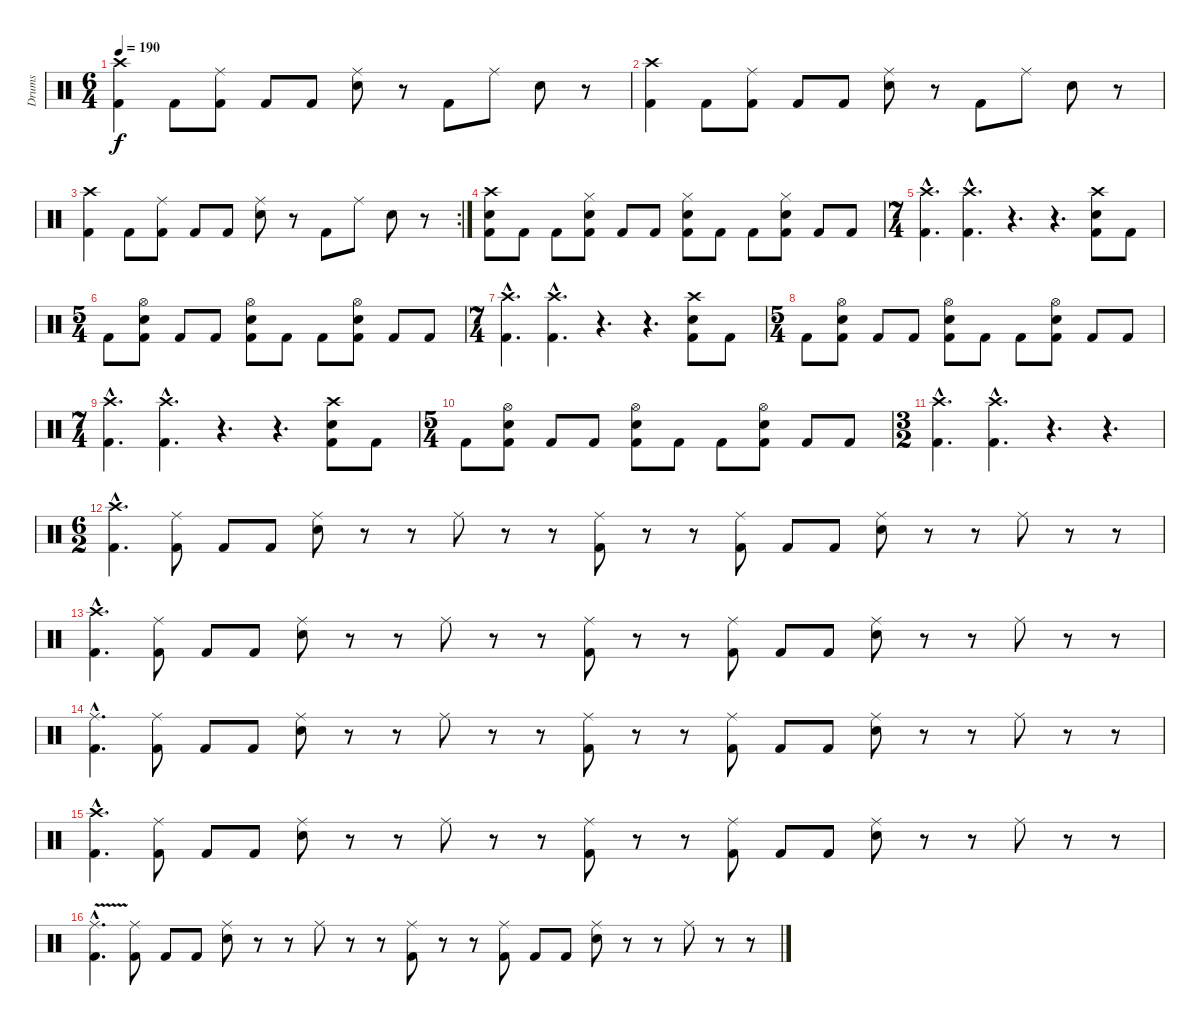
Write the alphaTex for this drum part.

\track ("Drums" "Drums") {instrument percussion}
\staff {score}
\articulation defaults
\ts (6 4)
\tempo 190
\clef neutral
\ks c
("Crash high (hit)" "Kick (hit) 2").4{dy f} "Kick (hit) 2".8 ("Ride (middle)" "Kick (hit) 2").8 "Kick (hit) 2".8 "Kick (hit) 2".8 ("Ride (middle)" "Snare (hit) 2").8 r.8 "Kick (hit) 2".8 "Ride (middle)".8 "Snare (hit) 2".8 r.8 |
("Crash high (hit)" "Kick (hit) 2").4 "Kick (hit) 2".8 ("Ride (middle)" "Kick (hit) 2").8 "Kick (hit) 2".8 "Kick (hit) 2".8 ("Ride (middle)" "Snare (hit) 2").8 r.8 "Kick (hit) 2".8 "Ride (middle)".8 "Snare (hit) 2".8 r.8 |
\rc 2
("Crash high (hit)" "Kick (hit) 2").4 "Kick (hit) 2".8 ("Ride (middle)" "Kick (hit) 2").8 "Kick (hit) 2".8 "Kick (hit) 2".8 ("Ride (middle)" "Snare (hit) 2").8 r.8 "Kick (hit) 2".8 "Ride (middle)".8 "Snare (hit) 2".8 r.8 |
("Crash high (hit)" "Snare (hit) 2" "Kick (hit) 2").8 "Kick (hit) 2".8 "Kick (hit) 2".8 ("Hi-Hat (closed)" "Snare (hit) 2" "Kick (hit) 2").8 "Kick (hit) 2".8 "Kick (hit) 2".8 ("Hi-Hat (closed)" "Snare (hit) 2" "Kick (hit) 2").8 "Kick (hit) 2".8 "Kick (hit) 2".8 ("Hi-Hat (closed)" "Snare (hit) 2" "Kick (hit) 2").8 "Kick (hit) 2".8 "Kick (hit) 2".8 |
\ts (7 4)
("Crash high (hit)"{hac} "Kick (hit) 2"{hac}).4{d} ("Crash high (hit)"{hac} "Kick (hit) 2"{hac}).4{d} r.4{d} r.4{d} ("Crash high (hit)" "Snare (hit) 2" "Kick (hit) 2").8 "Kick (hit) 2".8 |
\ts (5 4)
"Kick (hit) 2".8 ("Hi-Hat (open)" "Snare (hit) 2" "Kick (hit) 2").8 "Kick (hit) 2".8 "Kick (hit) 2".8 ("Hi-Hat (open)" "Snare (hit) 2" "Kick (hit) 2").8 "Kick (hit) 2".8 "Kick (hit) 2".8 ("Hi-Hat (open)" "Snare (hit) 2" "Kick (hit) 2").8 "Kick (hit) 2".8 "Kick (hit) 2".8 |
\ts (7 4)
("Crash high (hit)"{hac} "Kick (hit) 2"{hac}).4{d} ("Crash high (hit)"{hac} "Kick (hit) 2"{hac}).4{d} r.4{d} r.4{d} ("Crash high (hit)" "Snare (hit) 2" "Kick (hit) 2").8 "Kick (hit) 2".8 |
\ts (5 4)
"Kick (hit) 2".8 ("Hi-Hat (open)" "Snare (hit) 2" "Kick (hit) 2").8 "Kick (hit) 2".8 "Kick (hit) 2".8 ("Hi-Hat (open)" "Snare (hit) 2" "Kick (hit) 2").8 "Kick (hit) 2".8 "Kick (hit) 2".8 ("Hi-Hat (open)" "Snare (hit) 2" "Kick (hit) 2").8 "Kick (hit) 2".8 "Kick (hit) 2".8 |
\ts (7 4)
("Crash high (hit)"{hac} "Kick (hit) 2"{hac}).4{d} ("Crash high (hit)"{hac} "Kick (hit) 2"{hac}).4{d} r.4{d} r.4{d} ("Crash high (hit)" "Snare (hit) 2" "Kick (hit) 2").8 "Kick (hit) 2".8 |
\ts (5 4)
"Kick (hit) 2".8 ("Hi-Hat (open)" "Snare (hit) 2" "Kick (hit) 2").8 "Kick (hit) 2".8 "Kick (hit) 2".8 ("Hi-Hat (open)" "Snare (hit) 2" "Kick (hit) 2").8 "Kick (hit) 2".8 "Kick (hit) 2".8 ("Hi-Hat (open)" "Snare (hit) 2" "Kick (hit) 2").8 "Kick (hit) 2".8 "Kick (hit) 2".8 |
\ts (3 2)
("Crash high (hit)"{hac} "Kick (hit) 2"{hac}).4{d} ("Crash high (hit)"{hac} "Kick (hit) 2"{hac}).4{d} r.4{d} r.4{d} |
\ts (6 2)
("Crash high (hit)"{hac} "Kick (hit) 2"{hac}).4{d} ("Ride (middle)" "Kick (hit) 2").8 "Kick (hit) 2".8 "Kick (hit) 2".8 ("Ride (middle)" "Snare (hit) 2").8 r.8 r.8 "Ride (middle)".8 r.8 r.8 ("Ride (middle)" "Kick (hit) 2").8 r.8 r.8 ("Ride (middle)" "Kick (hit) 2").8 "Kick (hit) 2".8 "Kick (hit) 2".8 ("Ride (middle)" "Snare (hit) 2").8 r.8 r.8 "Ride (middle)".8 r.8 r.8 |
("Crash high (hit)"{hac} "Kick (hit) 2"{hac}).4{d} ("Ride (middle)" "Kick (hit) 2").8 "Kick (hit) 2".8 "Kick (hit) 2".8 ("Ride (middle)" "Snare (hit) 2").8 r.8 r.8 "Ride (middle)".8 r.8 r.8 ("Ride (middle)" "Kick (hit) 2").8 r.8 r.8 ("Ride (middle)" "Kick (hit) 2").8 "Kick (hit) 2".8 "Kick (hit) 2".8 ("Ride (middle)" "Snare (hit) 2").8 r.8 r.8 "Ride (middle)".8 r.8 r.8 |
("Ride (middle)"{hac} "Kick (hit) 2"{hac}).4{d} ("Ride (middle)" "Kick (hit) 2").8 "Kick (hit) 2".8 "Kick (hit) 2".8 ("Ride (middle)" "Snare (hit) 2").8 r.8 r.8 "Ride (middle)".8 r.8 r.8 ("Ride (middle)" "Kick (hit) 2").8 r.8 r.8 ("Ride (middle)" "Kick (hit) 2").8 "Kick (hit) 2".8 "Kick (hit) 2".8 ("Ride (middle)" "Snare (hit) 2").8 r.8 r.8 "Ride (middle)".8 r.8 r.8 |
("Crash high (hit)"{hac} "Kick (hit) 2"{hac}).4{d} ("Ride (middle)" "Kick (hit) 2").8 "Kick (hit) 2".8 "Kick (hit) 2".8 ("Ride (middle)" "Snare (hit) 2").8 r.8 r.8 "Ride (middle)".8 r.8 r.8 ("Ride (middle)" "Kick (hit) 2").8 r.8 r.8 ("Ride (middle)" "Kick (hit) 2").8 "Kick (hit) 2".8 "Kick (hit) 2".8 ("Ride (middle)" "Snare (hit) 2").8 r.8 r.8 "Ride (middle)".8 r.8 r.8 |
("Ride (middle)"{hac} "Kick (hit) 2"{v hac}).4{d} ("Ride (middle)" "Kick (hit) 2").8 "Kick (hit) 2".8 "Kick (hit) 2".8 ("Ride (middle)" "Snare (hit) 2").8 r.8 r.8 "Ride (middle)".8 r.8 r.8 ("Ride (middle)" "Kick (hit) 2").8 r.8 r.8 ("Ride (middle)" "Kick (hit) 2").8 "Kick (hit) 2".8 "Kick (hit) 2".8 ("Ride (middle)" "Snare (hit) 2").8 r.8 r.8 "Ride (middle)".8 r.8 r.8
